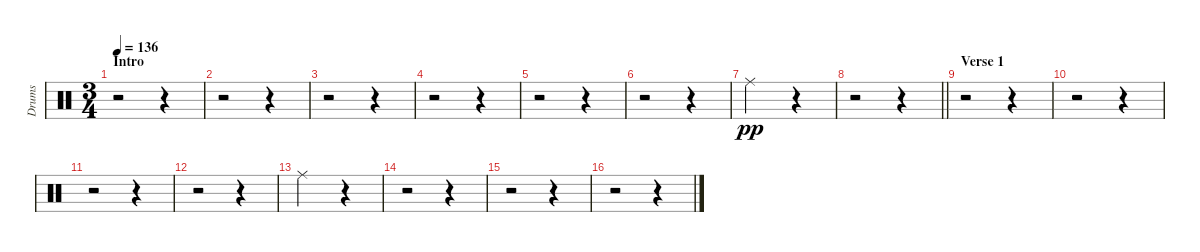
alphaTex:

\track ("Drums" "Drums") {instrument percussion}
\staff {score}
\articulation defaults
\ts (3 4)
\section ("" "Intro")
\tempo 136
\clef neutral
\ks c
r.2{dy pp} r.4 |
r.2 r.4 |
r.2 r.4 |
r.2 r.4 |
r.2 r.4 |
r.2 r.4 |
"Ride (middle)".2 r.4 |
\barLineRight lightlight
r.2 r.4 |
\section ("" "Verse 1")
r.2 r.4 |
r.2 r.4 |
r.2 r.4 |
r.2 r.4 |
"Ride (middle)".2 r.4 |
r.2 r.4 |
r.2 r.4 |
r.2 r.4
